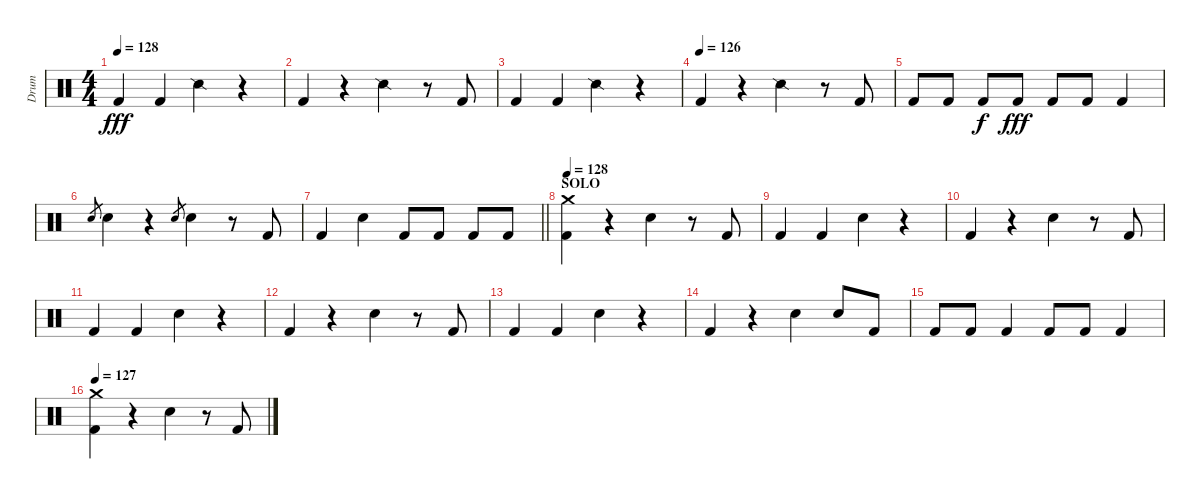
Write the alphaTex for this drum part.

\track ("Drum" "Drum") {instrument percussion}
\staff {score}
\articulation defaults
\ts (4 4)
\tempo 128
\clef neutral
\ks c "Kick (hit) 2".4{dy fff} "Kick (hit) 2".4 "Snare (side stick) 2".4
r.4 |
"Kick (hit) 2".4 r.4 "Snare (side stick) 2".4 r.8 "Kick (hit) 2".8 |
"Kick (hit) 2".4 "Kick (hit) 2".4 "Snare (side stick) 2".4 r.4 |
\tempo (126)
"Kick (hit) 2".4 r.4 "Snare (side stick) 2".4 r.8 "Kick (hit) 2".8 |
"Kick (hit) 2".8 "Kick (hit) 2".8 "Kick (hit) 2".8{dy f} "Kick (hit) 2".8{dy fff} "Kick (hit) 2".8 "Kick (hit) 2".8 "Kick (hit) 2".4 |
"Electric Snare (hit)".8{gr} "Electric Snare (hit)".4 r.4 "Electric Snare (hit)".8{gr} "Electric Snare (hit)".4 r.8 "Kick (hit) 2".8 |
\barLineRight lightlight "Kick (hit) 2".4 "Electric Snare (hit)".4 "Kick (hit) 2".8 "Kick (hit) 2".8 "Kick (hit) 2".8 "Kick (hit) 2".8
|
\section ("" "SOLO")
\tempo 128
("Kick (hit) 2" "Crash medium (hit)").4 r.4 "Electric Snare (hit)".4 r.8 "Kick (hit) 2".8 |
"Kick (hit) 2".4 "Kick (hit) 2".4 "Electric Snare (hit)".4 r.4 |
"Kick (hit) 2".4 r.4 "Electric Snare (hit)".4 r.8 "Kick (hit) 2".8 |
"Kick (hit) 2".4 "Kick (hit) 2".4 "Electric Snare (hit)".4 r.4 |
"Kick (hit) 2".4 r.4 "Electric Snare (hit)".4 r.8 "Kick (hit) 2".8 |
"Kick (hit) 2".4 "Kick (hit) 2".4 "Electric Snare (hit)".4 r.4 |
"Kick (hit) 2".4 r.4 "Electric Snare (hit)".4 "Electric Snare (hit)".8 "Kick (hit) 2".8 |
"Kick (hit) 2".8 "Kick (hit) 2".8 "Kick (hit) 2".4 "Kick (hit) 2".8 "Kick (hit) 2".8 "Kick (hit) 2".4 |
\tempo 127
("Kick (hit) 2" "Crash medium (hit)").4 r.4 "Electric Snare (hit)".4 r.8 "Kick (hit) 2".8
